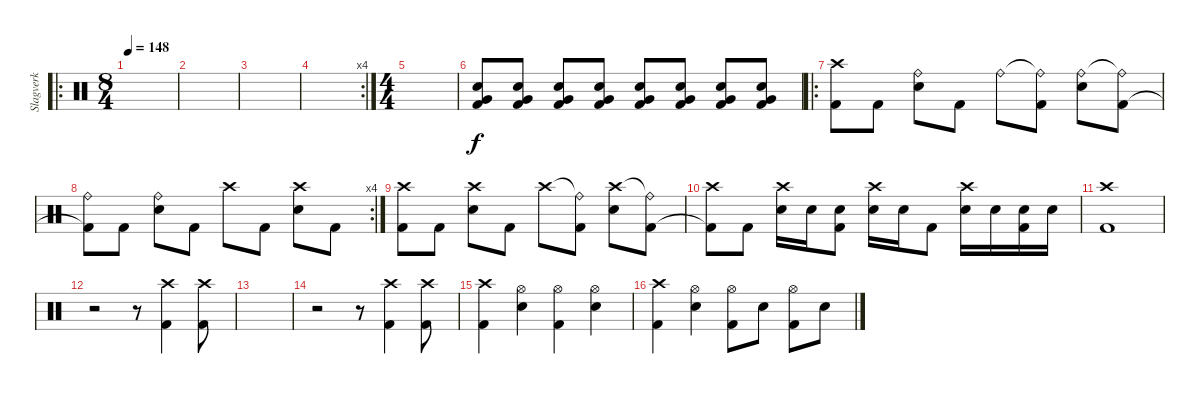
\track ("Slagverk" "Slagverk") {instrument percussion}
\staff {score}
\articulation defaults
\ro
\ts (8 4)
\tempo 148
\clef neutral
\ks c
|
|
|
\rc 4
|
\ts (4 4)
|
("Electric Snare (hit)" "Very Low Tom (hit)" "Kick (hit) 2").8 ("Electric Snare (hit)" "Very Low Tom (hit)" "Kick (hit) 2").8 ("Electric Snare (hit)" "Very Low Tom (hit)" "Kick (hit) 2").8 ("Electric Snare (hit)" "Very Low Tom (hit)" "Kick (hit) 2").8 ("Electric Snare (hit)" "Very Low Tom (hit)" "Kick (hit) 2").8 ("Electric Snare (hit)" "Very Low Tom (hit)" "Kick (hit) 2").8 ("Electric Snare (hit)" "Very Low Tom (hit)" "Kick (hit) 2").8 ("Electric Snare (hit)" "Very Low Tom (hit)" "Kick (hit) 2").8 |
\ro
("Crash high (hit)" "Kick (hit) 2").8 "Kick (hit) 2".8 ("Ride (bell)" "Electric Snare (hit)").8 "Kick (hit) 2".8 "Ride (bell)".8 ("Ride (bell)"{t} "Kick (hit) 2").8 ("Ride (bell)" "Electric Snare (hit)").8 ("Ride (bell)"{t} "Kick (hit) 2").8 |
\rc 4
("Ride (bell)" "Kick (hit) 2"{t}).8 "Kick (hit) 2".8 ("Ride (bell)" "Electric Snare (hit)").8 "Kick (hit) 2".8 "Crash high (hit)".8 "Kick (hit) 2".8 ("Crash high (hit)" "Electric Snare (hit)").8 "Kick (hit) 2".8 |
("Crash high (hit)" "Kick (hit) 2").8 "Kick (hit) 2".8 ("Crash high (hit)" "Electric Snare (hit)").8 "Kick (hit) 2".8 "Crash high (hit)".8 ("Ride (bell)"{t} "Kick (hit) 2").8 ("Crash high (hit)" "Electric Snare (hit)").8 ("Ride (bell)"{t} "Kick (hit) 2").8 |
("Crash high (hit)" "Kick (hit) 2"{t}).8 "Kick (hit) 2".8 ("Crash high (hit)" "Electric Snare (hit)").16 "Electric Snare (hit)".16 ("Electric Snare (hit)" "Kick (hit) 2").8 ("Crash high (hit)" "Electric Snare (hit)").16 "Electric Snare (hit)".16 "Kick (hit) 2".8 ("Crash high (hit)" "Electric Snare (hit)").16 "Electric Snare (hit)".16 ("Electric Snare (hit)" "Kick (hit) 2").16 "Electric Snare (hit)".16 |
("Crash high (hit)" "Kick (hit) 2").1 |
r.2 r.8 ("Crash high (hit)" "Kick (hit) 2").4 ("Crash high (hit)" "Kick (hit) 2").8 |
|
r.2 r.8 ("Crash high (hit)" "Kick (hit) 2").4 ("Crash high (hit)" "Kick (hit) 2").8 |
("Crash high (hit)" "Kick (hit) 2").4 ("Hi-Hat (open)" "Electric Snare (hit)").4 ("Hi-Hat (open)" "Kick (hit) 2").4 ("Hi-Hat (open)" "Electric Snare (hit)").4 |
("Crash high (hit)" "Kick (hit) 2").4 ("Hi-Hat (open)" "Electric Snare (hit)").4 ("Hi-Hat (open)" "Kick (hit) 2").8 "Electric Snare (hit)".8 ("Hi-Hat (open)" "Kick (hit) 2").8 "Electric Snare (hit)".8
